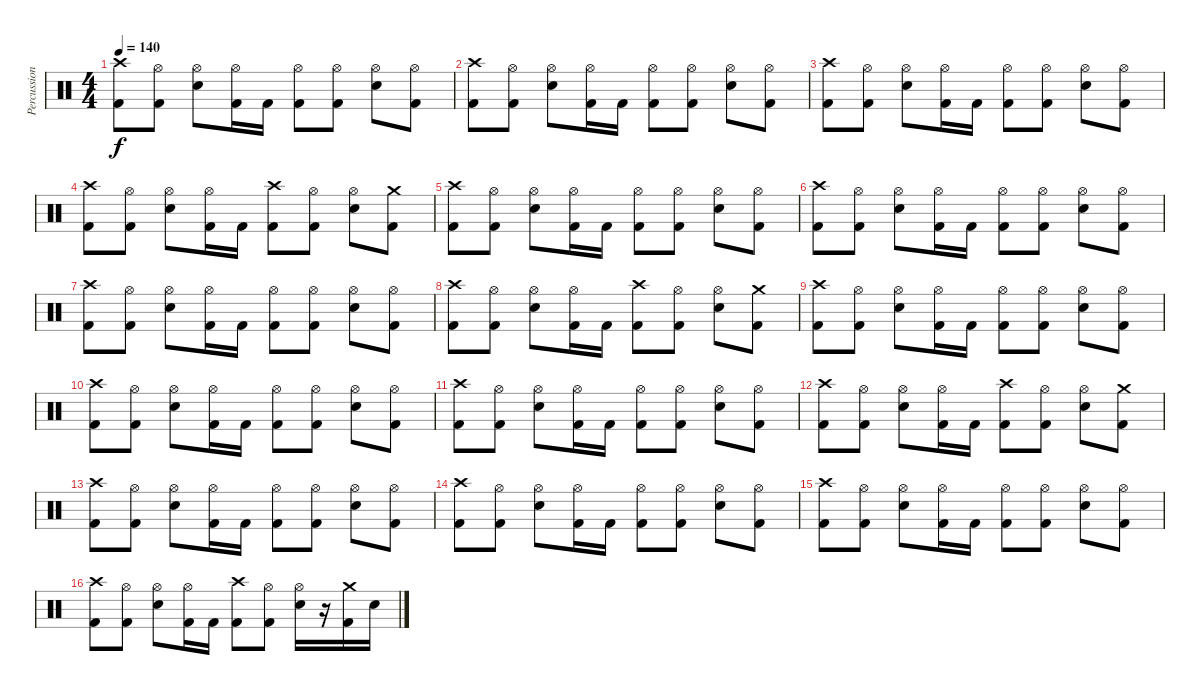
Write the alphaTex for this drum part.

\track ("Percussions" "Percussion") {instrument percussion}
\staff {score}
\articulation defaults
\ts (4 4)
\tempo 140
\clef neutral
\ks c
("Crash high (hit)" "Kick (hit) 2").8{dy f} ("Hi-Hat (open)" "Kick (hit) 2").8 ("Hi-Hat (open)" "Electric Snare (hit)").8 ("Hi-Hat (open)" "Kick (hit) 2").16 "Kick (hit) 2".16 ("Hi-Hat (open)" "Kick (hit) 2").8 ("Hi-Hat (open)" "Kick (hit) 2").8 ("Hi-Hat (open)" "Electric Snare (hit)").8 ("Hi-Hat (open)" "Kick (hit) 2").8 |
("Crash high (hit)" "Kick (hit) 2").8 ("Hi-Hat (open)" "Kick (hit) 2").8 ("Hi-Hat (open)" "Electric Snare (hit)").8 ("Hi-Hat (open)" "Kick (hit) 2").16 "Kick (hit) 2".16 ("Hi-Hat (open)" "Kick (hit) 2").8 ("Hi-Hat (open)" "Kick (hit) 2").8 ("Hi-Hat (open)" "Electric Snare (hit)").8 ("Hi-Hat (open)" "Kick (hit) 2").8 |
("Crash high (hit)" "Kick (hit) 2").8 ("Hi-Hat (open)" "Kick (hit) 2").8 ("Hi-Hat (open)" "Electric Snare (hit)").8 ("Hi-Hat (open)" "Kick (hit) 2").16 "Kick (hit) 2".16 ("Hi-Hat (open)" "Kick (hit) 2").8 ("Hi-Hat (open)" "Kick (hit) 2").8 ("Hi-Hat (open)" "Electric Snare (hit)").8 ("Hi-Hat (open)" "Kick (hit) 2").8 |
("Crash high (hit)" "Kick (hit) 2").8 ("Hi-Hat (open)" "Kick (hit) 2").8 ("Hi-Hat (open)" "Electric Snare (hit)").8 ("Hi-Hat (open)" "Kick (hit) 2").16 "Kick (hit) 2".16 ("Crash high (hit)" "Kick (hit) 2").8 ("Hi-Hat (open)" "Kick (hit) 2").8 ("Hi-Hat (open)" "Electric Snare (hit)").8 ("Crash medium (hit)" "Kick (hit) 2").8 |
("Crash high (hit)" "Kick (hit) 2").8 ("Hi-Hat (open)" "Kick (hit) 2").8 ("Hi-Hat (open)" "Electric Snare (hit)").8 ("Hi-Hat (open)" "Kick (hit) 2").16 "Kick (hit) 2".16 ("Hi-Hat (open)" "Kick (hit) 2").8 ("Hi-Hat (open)" "Kick (hit) 2").8 ("Hi-Hat (open)" "Electric Snare (hit)").8 ("Hi-Hat (open)" "Kick (hit) 2").8 |
("Crash high (hit)" "Kick (hit) 2").8 ("Hi-Hat (open)" "Kick (hit) 2").8 ("Hi-Hat (open)" "Electric Snare (hit)").8 ("Hi-Hat (open)" "Kick (hit) 2").16 "Kick (hit) 2".16 ("Hi-Hat (open)" "Kick (hit) 2").8 ("Hi-Hat (open)" "Kick (hit) 2").8 ("Hi-Hat (open)" "Electric Snare (hit)").8 ("Hi-Hat (open)" "Kick (hit) 2").8 |
("Crash high (hit)" "Kick (hit) 2").8 ("Hi-Hat (open)" "Kick (hit) 2").8 ("Hi-Hat (open)" "Electric Snare (hit)").8 ("Hi-Hat (open)" "Kick (hit) 2").16 "Kick (hit) 2".16 ("Hi-Hat (open)" "Kick (hit) 2").8 ("Hi-Hat (open)" "Kick (hit) 2").8 ("Hi-Hat (open)" "Electric Snare (hit)").8 ("Hi-Hat (open)" "Kick (hit) 2").8 |
("Crash high (hit)" "Kick (hit) 2").8 ("Hi-Hat (open)" "Kick (hit) 2").8 ("Hi-Hat (open)" "Electric Snare (hit)").8 ("Hi-Hat (open)" "Kick (hit) 2").16 "Kick (hit) 2".16 ("Crash high (hit)" "Kick (hit) 2").8 ("Hi-Hat (open)" "Kick (hit) 2").8 ("Hi-Hat (open)" "Electric Snare (hit)").8 ("Crash medium (hit)" "Kick (hit) 2").8 |
("Crash high (hit)" "Kick (hit) 2").8 ("Hi-Hat (open)" "Kick (hit) 2").8 ("Hi-Hat (open)" "Electric Snare (hit)").8 ("Hi-Hat (open)" "Kick (hit) 2").16 "Kick (hit) 2".16 ("Hi-Hat (open)" "Kick (hit) 2").8 ("Hi-Hat (open)" "Kick (hit) 2").8 ("Hi-Hat (open)" "Electric Snare (hit)").8 ("Hi-Hat (open)" "Kick (hit) 2").8 |
("Crash high (hit)" "Kick (hit) 2").8 ("Hi-Hat (open)" "Kick (hit) 2").8 ("Hi-Hat (open)" "Electric Snare (hit)").8 ("Hi-Hat (open)" "Kick (hit) 2").16 "Kick (hit) 2".16 ("Hi-Hat (open)" "Kick (hit) 2").8 ("Hi-Hat (open)" "Kick (hit) 2").8 ("Hi-Hat (open)" "Electric Snare (hit)").8 ("Hi-Hat (open)" "Kick (hit) 2").8 |
("Crash high (hit)" "Kick (hit) 2").8 ("Hi-Hat (open)" "Kick (hit) 2").8 ("Hi-Hat (open)" "Electric Snare (hit)").8 ("Hi-Hat (open)" "Kick (hit) 2").16 "Kick (hit) 2".16 ("Hi-Hat (open)" "Kick (hit) 2").8 ("Hi-Hat (open)" "Kick (hit) 2").8 ("Hi-Hat (open)" "Electric Snare (hit)").8 ("Hi-Hat (open)" "Kick (hit) 2").8 |
("Crash high (hit)" "Kick (hit) 2").8 ("Hi-Hat (open)" "Kick (hit) 2").8 ("Hi-Hat (open)" "Electric Snare (hit)").8 ("Hi-Hat (open)" "Kick (hit) 2").16 "Kick (hit) 2".16 ("Crash high (hit)" "Kick (hit) 2").8 ("Hi-Hat (open)" "Kick (hit) 2").8 ("Hi-Hat (open)" "Electric Snare (hit)").8 ("Crash medium (hit)" "Kick (hit) 2").8 |
("Crash high (hit)" "Kick (hit) 2").8 ("Hi-Hat (open)" "Kick (hit) 2").8 ("Hi-Hat (open)" "Electric Snare (hit)").8 ("Hi-Hat (open)" "Kick (hit) 2").16 "Kick (hit) 2".16 ("Hi-Hat (open)" "Kick (hit) 2").8 ("Hi-Hat (open)" "Kick (hit) 2").8 ("Hi-Hat (open)" "Electric Snare (hit)").8 ("Hi-Hat (open)" "Kick (hit) 2").8 |
("Crash high (hit)" "Kick (hit) 2").8 ("Hi-Hat (open)" "Kick (hit) 2").8 ("Hi-Hat (open)" "Electric Snare (hit)").8 ("Hi-Hat (open)" "Kick (hit) 2").16 "Kick (hit) 2".16 ("Hi-Hat (open)" "Kick (hit) 2").8 ("Hi-Hat (open)" "Kick (hit) 2").8 ("Hi-Hat (open)" "Electric Snare (hit)").8 ("Hi-Hat (open)" "Kick (hit) 2").8 |
("Crash high (hit)" "Kick (hit) 2").8 ("Hi-Hat (open)" "Kick (hit) 2").8 ("Hi-Hat (open)" "Electric Snare (hit)").8 ("Hi-Hat (open)" "Kick (hit) 2").16 "Kick (hit) 2".16 ("Hi-Hat (open)" "Kick (hit) 2").8 ("Hi-Hat (open)" "Kick (hit) 2").8 ("Hi-Hat (open)" "Electric Snare (hit)").8 ("Hi-Hat (open)" "Kick (hit) 2").8 |
("Crash high (hit)" "Kick (hit) 2").8 ("Hi-Hat (open)" "Kick (hit) 2").8 ("Hi-Hat (open)" "Electric Snare (hit)").8 ("Hi-Hat (open)" "Kick (hit) 2").16 "Kick (hit) 2".16 ("Crash high (hit)" "Kick (hit) 2").8 ("Hi-Hat (open)" "Kick (hit) 2").8 ("Hi-Hat (open)" "Electric Snare (hit)").16 r.16 ("Crash medium (hit)" "Kick (hit) 2").16 "Electric Snare (hit)".16
